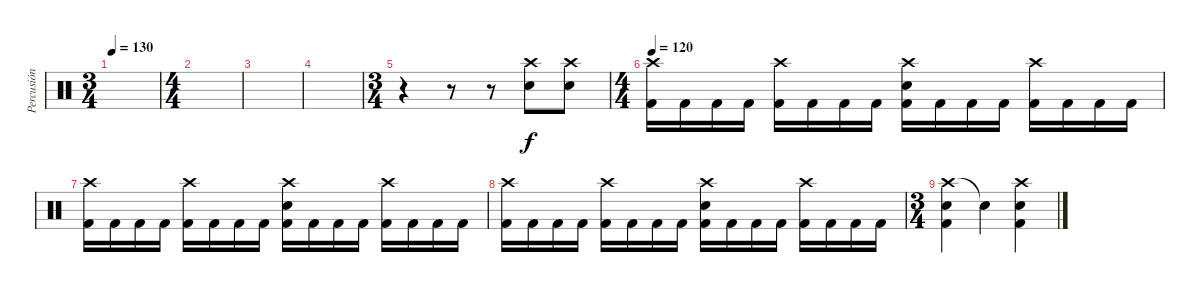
\track ("Percusión" "Percusión") {instrument percussion}
\staff {score}
\articulation defaults
\ts (3 4)
\tempo 130
\clef neutral
\ks c
|
\ts (4 4)
|
|
|
\ts (3 4)
r.4 r.8 r.8 ("Crash high (hit)" "Snare (hit) 2").8 ("Crash high (hit)" "Snare (hit) 2").8 |
\ts (4 4)
\tempo 120
("Crash high (hit)" "Kick (hit) 2").16 "Kick (hit) 2".16 "Kick (hit) 2".16 "Kick (hit) 2".16 ("Crash high (hit)" "Kick (hit) 2").16 "Kick (hit) 2".16 "Kick (hit) 2".16 "Kick (hit) 2".16 ("Crash high (hit)" "Snare (hit) 2" "Kick (hit) 2").16 "Kick (hit) 2".16 "Kick (hit) 2".16 "Kick (hit) 2".16 ("Crash high (hit)" "Kick (hit) 2").16 "Kick (hit) 2".16 "Kick (hit) 2".16 "Kick (hit) 2".16 |
("Crash high (hit)" "Kick (hit) 2").16 "Kick (hit) 2".16 "Kick (hit) 2".16 "Kick (hit) 2".16 ("Crash high (hit)" "Kick (hit) 2").16 "Kick (hit) 2".16 "Kick (hit) 2".16 "Kick (hit) 2".16 ("Crash high (hit)" "Snare (hit) 2" "Kick (hit) 2").16 "Kick (hit) 2".16 "Kick (hit) 2".16 "Kick (hit) 2".16 ("Crash high (hit)" "Kick (hit) 2").16 "Kick (hit) 2".16 "Kick (hit) 2".16 "Kick (hit) 2".16 |
("Crash high (hit)" "Kick (hit) 2").16 "Kick (hit) 2".16 "Kick (hit) 2".16 "Kick (hit) 2".16 ("Crash high (hit)" "Kick (hit) 2").16 "Kick (hit) 2".16 "Kick (hit) 2".16 "Kick (hit) 2".16 ("Crash high (hit)" "Snare (hit) 2" "Kick (hit) 2").16 "Kick (hit) 2".16 "Kick (hit) 2".16 "Kick (hit) 2".16 ("Crash high (hit)" "Kick (hit) 2").16 "Kick (hit) 2".16 "Kick (hit) 2".16 "Kick (hit) 2".16 |
\ts (3 4)
("Crash high (hit)" "Snare (hit) 2" "Kick (hit) 2").4 "Snare (hit)"{t}.4 ("Crash high (hit)" "Snare (hit) 2" "Kick (hit) 2").4
